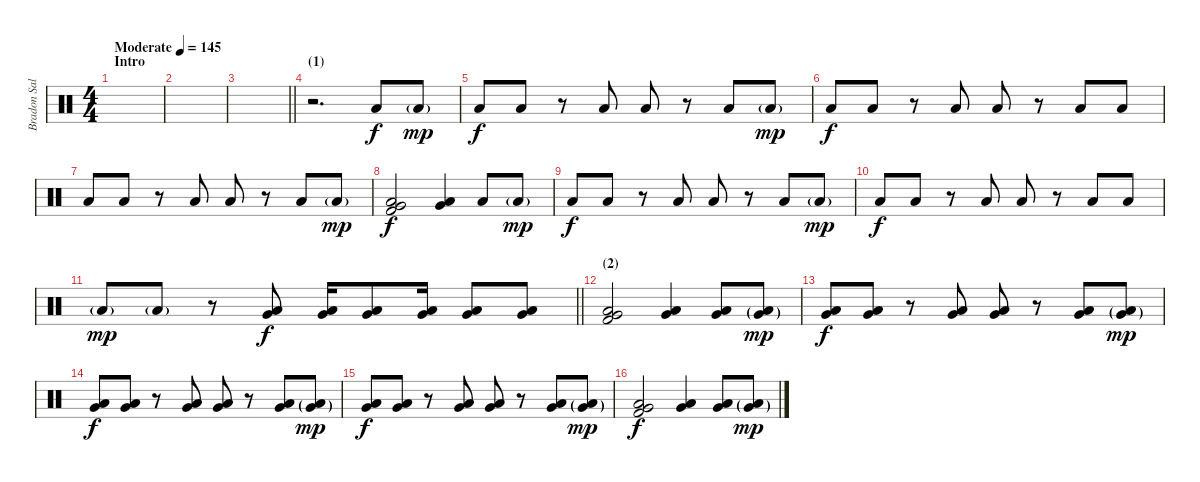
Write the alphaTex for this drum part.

\track ("Bradon Saller" "Bradon Sal") {instrument percussion}
\staff {score}
\articulation defaults
\ts (4 4)
\section ("" "Intro")
\tempo (145 "Moderate")
\clef neutral
\ks c
|
|
\barLineRight lightlight
|
\section ("" "(1)")
r.2{d} "Low Floor Tom (hit)".8 "Low Floor Tom (hit)"{g}.8{dy mp} |
"Low Floor Tom (hit)".8{dy f} "Low Floor Tom (hit)".8 r.8 "Low Floor Tom (hit)".8 "Low Floor Tom (hit)".8 r.8 "Low Floor Tom (hit)".8 "Low Floor Tom (hit)"{g}.8{dy mp} |
"Low Floor Tom (hit)".8{dy f} "Low Floor Tom (hit)".8 r.8 "Low Floor Tom (hit)".8 "Low Floor Tom (hit)".8 r.8 "Low Floor Tom (hit)".8 "Low Floor Tom (hit)".8 |
"Low Floor Tom (hit)".8 "Low Floor Tom (hit)".8 r.8 "Low Floor Tom (hit)".8 "Low Floor Tom (hit)".8 r.8 "Low Floor Tom (hit)".8 "Low Floor Tom (hit)"{g}.8{dy mp} |
("Very Low Tom (hit)" "Low Floor Tom (hit)" "Kick (hit) 2").2{dy f} ("Very Low Tom (hit)" "Low Floor Tom (hit)").4 "Low Floor Tom (hit)".8 "Low Floor Tom (hit)"{g}.8{dy mp} |
"Low Floor Tom (hit)".8{dy f} "Low Floor Tom (hit)".8 r.8 "Low Floor Tom (hit)".8 "Low Floor Tom (hit)".8 r.8 "Low Floor Tom (hit)".8 "Low Floor Tom (hit)"{g}.8{dy mp} |
"Low Floor Tom (hit)".8{dy f} "Low Floor Tom (hit)".8 r.8 "Low Floor Tom (hit)".8 "Low Floor Tom (hit)".8 r.8 "Low Floor Tom (hit)".8 "Low Floor Tom (hit)".8 |
\barLineRight lightlight "Low Floor Tom (hit)"{g}.8{dy mp} "Low Floor Tom (hit)"{g}.8
r.8 ("Very Low Tom (hit)" "Low Floor Tom (hit)").8{dy f} ("Very Low Tom (hit)" "Low Floor Tom (hit)").16 ("Very Low Tom (hit)" "Low Floor Tom (hit)").8 ("Very Low Tom (hit)" "Low Floor Tom (hit)").16 ("Very Low Tom (hit)" "Low Floor Tom (hit)").8 ("Very Low Tom (hit)" "Low Floor Tom (hit)").8 |
\section ("" "(2)")
("Very Low Tom (hit)" "Low Floor Tom (hit)" "Kick (hit) 2").2 ("Very Low Tom (hit)" "Low Floor Tom (hit)").4 ("Very Low Tom (hit)" "Low Floor Tom (hit)").8 ("Very Low Tom (hit)"{g} "Low Floor Tom (hit)"{g}).8{dy mp} |
("Very Low Tom (hit)" "Low Floor Tom (hit)").8{dy f} ("Very Low Tom (hit)" "Low Floor Tom (hit)").8 r.8 ("Very Low Tom (hit)" "Low Floor Tom (hit)").8 ("Very Low Tom (hit)" "Low Floor Tom (hit)").8 r.8 ("Very Low Tom (hit)" "Low Floor Tom (hit)").8 ("Very Low Tom (hit)"{g} "Low Floor Tom (hit)"{g}).8{dy mp} |
("Very Low Tom (hit)" "Low Floor Tom (hit)").8{dy f} ("Very Low Tom (hit)" "Low Floor Tom (hit)").8 r.8 ("Very Low Tom (hit)" "Low Floor Tom (hit)").8 ("Very Low Tom (hit)" "Low Floor Tom (hit)").8 r.8 ("Very Low Tom (hit)" "Low Floor Tom (hit)").8 ("Very Low Tom (hit)"{g} "Low Floor Tom (hit)"{g}).8{dy mp} |
("Very Low Tom (hit)" "Low Floor Tom (hit)").8{dy f} ("Very Low Tom (hit)" "Low Floor Tom (hit)").8 r.8 ("Very Low Tom (hit)" "Low Floor Tom (hit)").8 ("Very Low Tom (hit)" "Low Floor Tom (hit)").8 r.8 ("Very Low Tom (hit)" "Low Floor Tom (hit)").8 ("Very Low Tom (hit)"{g} "Low Floor Tom (hit)"{g}).8{dy mp} |
("Very Low Tom (hit)" "Low Floor Tom (hit)" "Kick (hit) 2").2{dy f} ("Very Low Tom (hit)" "Low Floor Tom (hit)").4 ("Very Low Tom (hit)" "Low Floor Tom (hit)").8 ("Very Low Tom (hit)"{g} "Low Floor Tom (hit)"{g}).8{dy mp}
